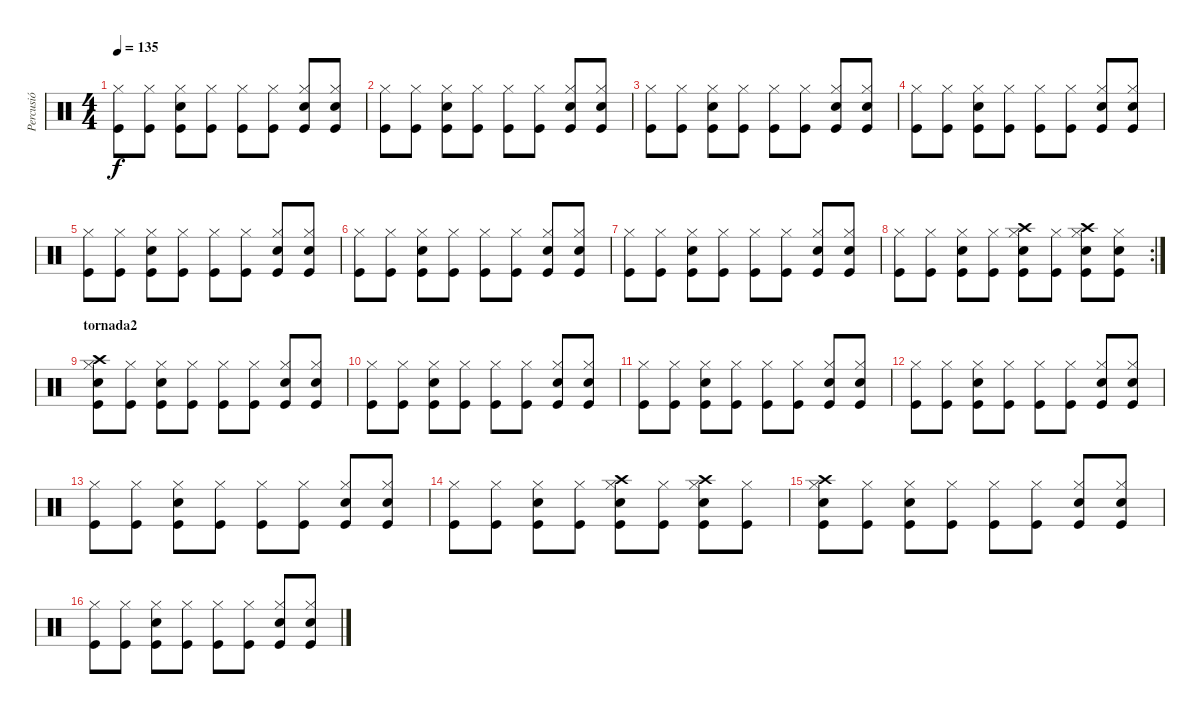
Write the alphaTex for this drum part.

\track ("Percusió" "Percusió") {instrument percussion}
\staff {score}
\articulation defaults
\ts (4 4)
\tempo 135
\clef neutral
\ks c
("Kick (hit)" "Hi-Hat (closed)").8{dy f} ("Kick (hit)" "Hi-Hat (closed)").8 ("Kick (hit)" "Hi-Hat (closed)" "Snare (hit) 2").8 ("Kick (hit)" "Hi-Hat (closed)").8 ("Kick (hit)" "Hi-Hat (closed)").8 ("Kick (hit)" "Hi-Hat (closed)").8 ("Kick (hit)" "Hi-Hat (closed)" "Snare (hit) 2").8 ("Kick (hit)" "Hi-Hat (closed)" "Snare (hit) 2").8 |
("Kick (hit)" "Hi-Hat (closed)").8 ("Kick (hit)" "Hi-Hat (closed)").8 ("Kick (hit)" "Hi-Hat (closed)" "Snare (hit) 2").8 ("Kick (hit)" "Hi-Hat (closed)").8 ("Kick (hit)" "Hi-Hat (closed)").8 ("Kick (hit)" "Hi-Hat (closed)").8 ("Kick (hit)" "Hi-Hat (closed)" "Snare (hit) 2").8 ("Kick (hit)" "Hi-Hat (closed)" "Snare (hit) 2").8 |
("Kick (hit)" "Hi-Hat (closed)").8 ("Kick (hit)" "Hi-Hat (closed)").8 ("Kick (hit)" "Hi-Hat (closed)" "Snare (hit) 2").8 ("Kick (hit)" "Hi-Hat (closed)").8 ("Kick (hit)" "Hi-Hat (closed)").8 ("Kick (hit)" "Hi-Hat (closed)").8 ("Kick (hit)" "Hi-Hat (closed)" "Snare (hit) 2").8 ("Kick (hit)" "Hi-Hat (closed)" "Snare (hit) 2").8 |
("Kick (hit)" "Hi-Hat (closed)").8 ("Kick (hit)" "Hi-Hat (closed)").8 ("Kick (hit)" "Hi-Hat (closed)" "Snare (hit) 2").8 ("Kick (hit)" "Hi-Hat (closed)").8 ("Kick (hit)" "Hi-Hat (closed)").8 ("Kick (hit)" "Hi-Hat (closed)").8 ("Kick (hit)" "Hi-Hat (closed)" "Snare (hit) 2").8 ("Kick (hit)" "Hi-Hat (closed)" "Snare (hit) 2").8 |
("Kick (hit)" "Hi-Hat (closed)").8 ("Kick (hit)" "Hi-Hat (closed)").8 ("Kick (hit)" "Hi-Hat (closed)" "Snare (hit) 2").8 ("Kick (hit)" "Hi-Hat (closed)").8 ("Kick (hit)" "Hi-Hat (closed)").8 ("Kick (hit)" "Hi-Hat (closed)").8 ("Kick (hit)" "Hi-Hat (closed)" "Snare (hit) 2").8 ("Kick (hit)" "Hi-Hat (closed)" "Snare (hit) 2").8 |
("Kick (hit)" "Hi-Hat (closed)").8 ("Kick (hit)" "Hi-Hat (closed)").8 ("Kick (hit)" "Hi-Hat (closed)" "Snare (hit) 2").8 ("Kick (hit)" "Hi-Hat (closed)").8 ("Kick (hit)" "Hi-Hat (closed)").8 ("Kick (hit)" "Hi-Hat (closed)").8 ("Kick (hit)" "Hi-Hat (closed)" "Snare (hit) 2").8 ("Kick (hit)" "Hi-Hat (closed)" "Snare (hit) 2").8 |
("Kick (hit)" "Hi-Hat (closed)").8 ("Kick (hit)" "Hi-Hat (closed)").8 ("Kick (hit)" "Hi-Hat (closed)" "Snare (hit) 2").8 ("Kick (hit)" "Hi-Hat (closed)").8 ("Kick (hit)" "Hi-Hat (closed)").8 ("Kick (hit)" "Hi-Hat (closed)").8 ("Kick (hit)" "Hi-Hat (closed)" "Snare (hit) 2").8 ("Kick (hit)" "Hi-Hat (closed)" "Snare (hit) 2").8 |
\rc 2
("Kick (hit)" "Hi-Hat (closed)").8 ("Kick (hit)" "Hi-Hat (closed)").8 ("Kick (hit)" "Hi-Hat (closed)" "Snare (hit) 2").8 ("Kick (hit)" "Hi-Hat (closed)").8 ("Kick (hit)" "Hi-Hat (closed)" "Snare (hit) 2" "Crash high (hit)").8 ("Kick (hit)" "Hi-Hat (closed)").8 ("Kick (hit)" "Hi-Hat (closed)" "Snare (hit) 2" "Crash high (hit)").8 ("Kick (hit)" "Hi-Hat (closed)" "Snare (hit) 2").8 |
\section ("" "tornada2")
("Kick (hit)" "Hi-Hat (closed)" "Snare (hit) 2" "Crash high (hit)").8 ("Kick (hit)" "Hi-Hat (closed)").8 ("Kick (hit)" "Hi-Hat (closed)" "Snare (hit) 2").8 ("Kick (hit)" "Hi-Hat (closed)").8 ("Kick (hit)" "Hi-Hat (closed)").8 ("Kick (hit)" "Hi-Hat (closed)").8 ("Kick (hit)" "Hi-Hat (closed)" "Snare (hit) 2").8 ("Kick (hit)" "Hi-Hat (closed)" "Snare (hit) 2").8 |
("Kick (hit)" "Hi-Hat (closed)").8 ("Kick (hit)" "Hi-Hat (closed)").8 ("Kick (hit)" "Hi-Hat (closed)" "Snare (hit) 2").8 ("Kick (hit)" "Hi-Hat (closed)").8 ("Kick (hit)" "Hi-Hat (closed)").8 ("Kick (hit)" "Hi-Hat (closed)").8 ("Kick (hit)" "Hi-Hat (closed)" "Snare (hit) 2").8 ("Kick (hit)" "Hi-Hat (closed)" "Snare (hit) 2").8 |
("Kick (hit)" "Hi-Hat (closed)").8 ("Kick (hit)" "Hi-Hat (closed)").8 ("Kick (hit)" "Hi-Hat (closed)" "Snare (hit) 2").8 ("Kick (hit)" "Hi-Hat (closed)").8 ("Kick (hit)" "Hi-Hat (closed)").8 ("Kick (hit)" "Hi-Hat (closed)").8 ("Kick (hit)" "Hi-Hat (closed)" "Snare (hit) 2").8 ("Kick (hit)" "Hi-Hat (closed)" "Snare (hit) 2").8 |
("Kick (hit)" "Hi-Hat (closed)").8 ("Kick (hit)" "Hi-Hat (closed)").8 ("Kick (hit)" "Hi-Hat (closed)" "Snare (hit) 2").8 ("Kick (hit)" "Hi-Hat (closed)").8 ("Kick (hit)" "Hi-Hat (closed)").8 ("Kick (hit)" "Hi-Hat (closed)").8 ("Kick (hit)" "Hi-Hat (closed)" "Snare (hit) 2").8 ("Kick (hit)" "Hi-Hat (closed)" "Snare (hit) 2").8 |
("Kick (hit)" "Hi-Hat (closed)").8 ("Kick (hit)" "Hi-Hat (closed)").8 ("Kick (hit)" "Hi-Hat (closed)" "Snare (hit) 2").8 ("Kick (hit)" "Hi-Hat (closed)").8 ("Kick (hit)" "Hi-Hat (closed)").8 ("Kick (hit)" "Hi-Hat (closed)").8 ("Kick (hit)" "Hi-Hat (closed)" "Snare (hit) 2").8 ("Kick (hit)" "Hi-Hat (closed)" "Snare (hit) 2").8 |
("Kick (hit)" "Hi-Hat (closed)").8 ("Kick (hit)" "Hi-Hat (closed)").8 ("Kick (hit)" "Hi-Hat (closed)" "Snare (hit) 2").8 ("Kick (hit)" "Hi-Hat (closed)").8 ("Kick (hit)" "Hi-Hat (closed)" "Snare (hit) 2" "Crash high (hit)").8 ("Kick (hit)" "Hi-Hat (closed)").8 ("Kick (hit)" "Hi-Hat (closed)" "Snare (hit) 2" "Crash high (hit)").8 ("Kick (hit)" "Hi-Hat (closed)").8 |
("Kick (hit)" "Hi-Hat (closed)" "Snare (hit) 2" "Crash high (hit)").8 ("Kick (hit)" "Hi-Hat (closed)").8 ("Kick (hit)" "Hi-Hat (closed)" "Snare (hit) 2").8 ("Kick (hit)" "Hi-Hat (closed)").8 ("Kick (hit)" "Hi-Hat (closed)").8 ("Kick (hit)" "Hi-Hat (closed)").8 ("Kick (hit)" "Hi-Hat (closed)" "Snare (hit) 2").8 ("Kick (hit)" "Hi-Hat (closed)" "Snare (hit) 2").8 |
("Kick (hit)" "Hi-Hat (closed)").8 ("Kick (hit)" "Hi-Hat (closed)").8 ("Kick (hit)" "Hi-Hat (closed)" "Snare (hit) 2").8 ("Kick (hit)" "Hi-Hat (closed)").8 ("Kick (hit)" "Hi-Hat (closed)").8 ("Kick (hit)" "Hi-Hat (closed)").8 ("Kick (hit)" "Hi-Hat (closed)" "Snare (hit) 2").8 ("Kick (hit)" "Hi-Hat (closed)" "Snare (hit) 2").8
